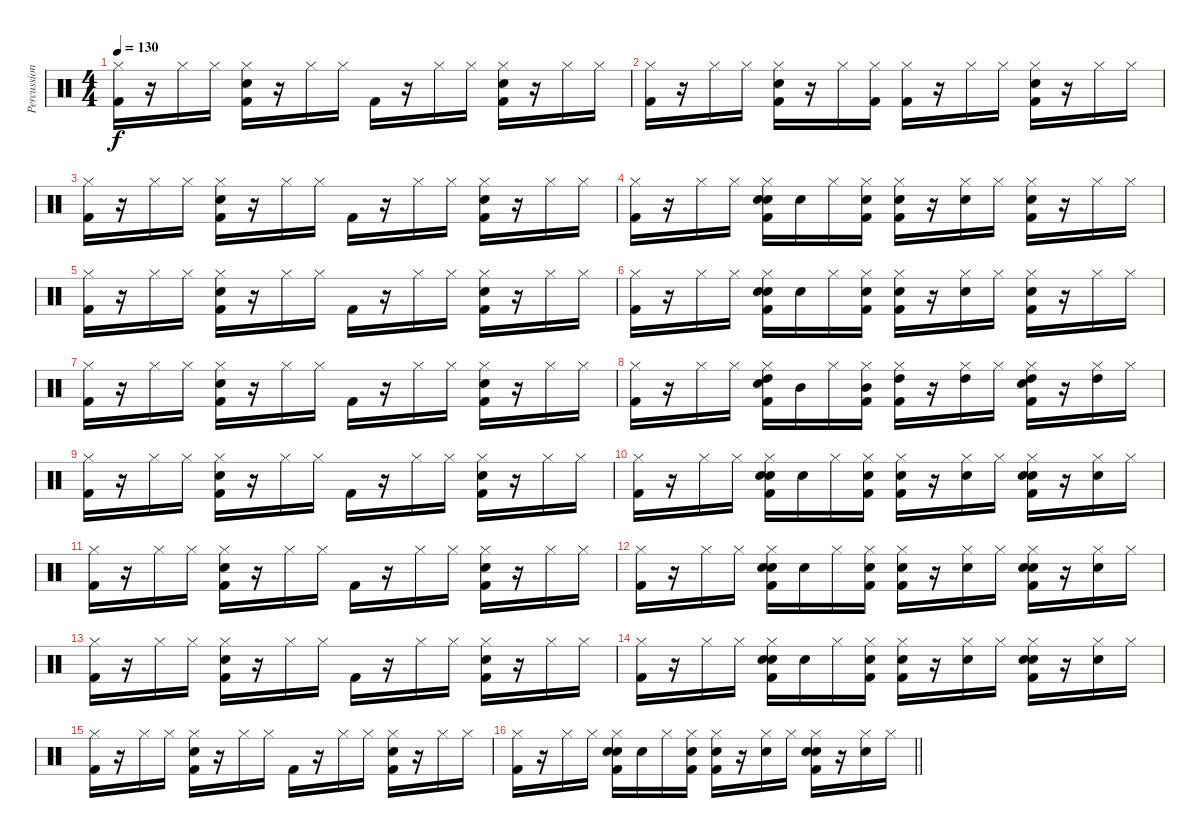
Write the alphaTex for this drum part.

\track ("Percussion" "Percussion") {instrument percussion}
\staff {score}
\articulation defaults
\ts (4 4)
\tempo 130
\clef neutral
\ks c
("Hi-Hat (closed)" "Kick (hit) 2").16{dy f} r.16 "Hi-Hat (closed)".16 "Hi-Hat (closed)".16 ("Hi-Hat (closed)" "Electric Snare (hit)" "Kick (hit) 2").16 r.16 "Hi-Hat (closed)".16 "Hi-Hat (closed)".16 "Kick (hit) 2".16 r.16 "Hi-Hat (closed)".16 "Hi-Hat (closed)".16 ("Hi-Hat (closed)" "Electric Snare (hit)" "Kick (hit) 2").16 r.16 "Hi-Hat (closed)".16 "Hi-Hat (closed)".16 |
("Hi-Hat (closed)" "Kick (hit) 2").16 r.16 "Hi-Hat (closed)".16 "Hi-Hat (closed)".16 ("Hi-Hat (closed)" "Electric Snare (hit)" "Kick (hit) 2").16 r.16 "Hi-Hat (closed)".16 ("Hi-Hat (closed)" "Kick (hit) 2").16 ("Hi-Hat (closed)" "Kick (hit) 2").16 r.16 "Hi-Hat (closed)".16 "Hi-Hat (closed)".16 ("Hi-Hat (closed)" "Electric Snare (hit)" "Kick (hit) 2").16 r.16 "Hi-Hat (closed)".16 "Hi-Hat (closed)".16 |
("Hi-Hat (closed)" "Kick (hit) 2").16 r.16 "Hi-Hat (closed)".16 "Hi-Hat (closed)".16 ("Hi-Hat (closed)" "Electric Snare (hit)" "Kick (hit) 2").16 r.16 "Hi-Hat (closed)".16 "Hi-Hat (closed)".16 "Kick (hit) 2".16 r.16 "Hi-Hat (closed)".16 "Hi-Hat (closed)".16 ("Hi-Hat (closed)" "Electric Snare (hit)" "Kick (hit) 2").16 r.16 "Hi-Hat (closed)".16 "Hi-Hat (closed)".16 |
("Hi-Hat (closed)" "Kick (hit) 2").16 r.16 "Hi-Hat (closed)".16 "Hi-Hat (closed)".16 ("Hi-Hat (closed)" "Hand Clap (hit)" "Electric Snare (hit)" "Kick (hit) 2").16 "Hand Clap (hit)".16 "Hi-Hat (closed)".16 ("Hi-Hat (closed)" "Hand Clap (hit)" "Kick (hit) 2").16 ("Hi-Hat (closed)" "Hand Clap (hit)" "Kick (hit) 2").16 r.16 ("Hi-Hat (closed)" "Hand Clap (hit)").16 "Hi-Hat (closed)".16 ("Hi-Hat (closed)" "Electric Snare (hit)" "Kick (hit) 2").16 r.16 "Hi-Hat (closed)".16 "Hi-Hat (closed)".16 |
("Hi-Hat (closed)" "Kick (hit) 2").16 r.16 "Hi-Hat (closed)".16 "Hi-Hat (closed)".16 ("Hi-Hat (closed)" "Electric Snare (hit)" "Kick (hit) 2").16 r.16 "Hi-Hat (closed)".16 "Hi-Hat (closed)".16 "Kick (hit) 2".16 r.16 "Hi-Hat (closed)".16 "Hi-Hat (closed)".16 ("Hi-Hat (closed)" "Electric Snare (hit)" "Kick (hit) 2").16 r.16 "Hi-Hat (closed)".16 "Hi-Hat (closed)".16 |
("Hi-Hat (closed)" "Kick (hit) 2").16 r.16 "Hi-Hat (closed)".16 "Hi-Hat (closed)".16 ("Hi-Hat (closed)" "Hand Clap (hit)" "Electric Snare (hit)" "Kick (hit) 2").16 "Hand Clap (hit)".16 "Hi-Hat (closed)".16 ("Hi-Hat (closed)" "Hand Clap (hit)" "Kick (hit) 2").16 ("Hi-Hat (closed)" "Hand Clap (hit)" "Kick (hit) 2").16 r.16 ("Hi-Hat (closed)" "Hand Clap (hit)").16 "Hi-Hat (closed)".16 ("Hi-Hat (closed)" "Electric Snare (hit)" "Kick (hit) 2").16 r.16 "Hi-Hat (closed)".16 "Hi-Hat (closed)".16 |
("Hi-Hat (closed)" "Kick (hit) 2").16 r.16 "Hi-Hat (closed)".16 "Hi-Hat (closed)".16 ("Hi-Hat (closed)" "Electric Snare (hit)" "Kick (hit) 2").16 r.16 "Hi-Hat (closed)".16 "Hi-Hat (closed)".16 "Kick (hit) 2".16 r.16 "Hi-Hat (closed)".16 "Hi-Hat (closed)".16 ("Hi-Hat (closed)" "Electric Snare (hit)" "Kick (hit) 2").16 r.16 "Hi-Hat (closed)".16 "Hi-Hat (closed)".16 |
("Hi-Hat (closed)" "Kick (hit) 2").16 r.16 "Hi-Hat (closed)".16 "Hi-Hat (closed)".16 ("Hi-Hat (closed)" "High Tom (hit)" "Electric Snare (hit)" "Kick (hit) 2").16 "Mid Tom (hit)".16 "Hi-Hat (closed)".16 ("Hi-Hat (closed)" "Mid Tom (hit)" "Kick (hit) 2").16 ("Hi-Hat (closed)" "High Tom (hit)" "Kick (hit) 2").16 r.16 ("Hi-Hat (closed)" "High Tom (hit)").16 "Hi-Hat (closed)".16 ("Hi-Hat (closed)" "High Tom (hit)" "Electric Snare (hit)" "Kick (hit) 2").16 r.16 ("Hi-Hat (closed)" "High Tom (hit)").16 "Hi-Hat (closed)".16 |
("Hi-Hat (closed)" "Kick (hit) 2").16 r.16 "Hi-Hat (closed)".16 "Hi-Hat (closed)".16 ("Hi-Hat (closed)" "Electric Snare (hit)" "Kick (hit) 2").16 r.16 "Hi-Hat (closed)".16 "Hi-Hat (closed)".16 "Kick (hit) 2".16 r.16 "Hi-Hat (closed)".16 "Hi-Hat (closed)".16 ("Hi-Hat (closed)" "Electric Snare (hit)" "Kick (hit) 2").16 r.16 "Hi-Hat (closed)".16 "Hi-Hat (closed)".16 |
("Hi-Hat (closed)" "Kick (hit) 2").16 r.16 "Hi-Hat (closed)".16 "Hi-Hat (closed)".16 ("Hi-Hat (closed)" "Hand Clap (hit)" "Electric Snare (hit)" "Kick (hit) 2").16 "Hand Clap (hit)".16 "Hi-Hat (closed)".16 ("Hi-Hat (closed)" "Hand Clap (hit)" "Kick (hit) 2").16 ("Hi-Hat (closed)" "Hand Clap (hit)" "Kick (hit) 2").16 r.16 ("Hi-Hat (closed)" "Hand Clap (hit)").16 "Hi-Hat (closed)".16 ("Hi-Hat (closed)" "Hand Clap (hit)" "Electric Snare (hit)" "Kick (hit) 2").16 r.16 ("Hi-Hat (closed)" "Hand Clap (hit)").16 "Hi-Hat (closed)".16 |
("Hi-Hat (closed)" "Kick (hit) 2").16 r.16 "Hi-Hat (closed)".16 "Hi-Hat (closed)".16 ("Hi-Hat (closed)" "Electric Snare (hit)" "Kick (hit) 2").16 r.16 "Hi-Hat (closed)".16 "Hi-Hat (closed)".16 "Kick (hit) 2".16 r.16 "Hi-Hat (closed)".16 "Hi-Hat (closed)".16 ("Hi-Hat (closed)" "Electric Snare (hit)" "Kick (hit) 2").16 r.16 "Hi-Hat (closed)".16 "Hi-Hat (closed)".16 |
("Hi-Hat (closed)" "Kick (hit) 2").16 r.16 "Hi-Hat (closed)".16 "Hi-Hat (closed)".16 ("Hi-Hat (closed)" "Hand Clap (hit)" "Electric Snare (hit)" "Kick (hit) 2").16 "Hand Clap (hit)".16 "Hi-Hat (closed)".16 ("Hi-Hat (closed)" "Hand Clap (hit)" "Kick (hit) 2").16 ("Hi-Hat (closed)" "Hand Clap (hit)" "Kick (hit) 2").16 r.16 ("Hi-Hat (closed)" "Hand Clap (hit)").16 "Hi-Hat (closed)".16 ("Hi-Hat (closed)" "Hand Clap (hit)" "Electric Snare (hit)" "Kick (hit) 2").16 r.16 ("Hi-Hat (closed)" "Hand Clap (hit)").16 "Hi-Hat (closed)".16 |
("Hi-Hat (closed)" "Kick (hit) 2").16 r.16 "Hi-Hat (closed)".16 "Hi-Hat (closed)".16 ("Hi-Hat (closed)" "Electric Snare (hit)" "Kick (hit) 2").16 r.16 "Hi-Hat (closed)".16 "Hi-Hat (closed)".16 "Kick (hit) 2".16 r.16 "Hi-Hat (closed)".16 "Hi-Hat (closed)".16 ("Hi-Hat (closed)" "Electric Snare (hit)" "Kick (hit) 2").16 r.16 "Hi-Hat (closed)".16 "Hi-Hat (closed)".16 |
("Hi-Hat (closed)" "Kick (hit) 2").16 r.16 "Hi-Hat (closed)".16 "Hi-Hat (closed)".16 ("Hi-Hat (closed)" "Hand Clap (hit)" "Electric Snare (hit)" "Kick (hit) 2").16 "Hand Clap (hit)".16 "Hi-Hat (closed)".16 ("Hi-Hat (closed)" "Hand Clap (hit)" "Kick (hit) 2").16 ("Hi-Hat (closed)" "Hand Clap (hit)" "Kick (hit) 2").16 r.16 ("Hi-Hat (closed)" "Hand Clap (hit)").16 "Hi-Hat (closed)".16 ("Hi-Hat (closed)" "Hand Clap (hit)" "Electric Snare (hit)" "Kick (hit) 2").16 r.16 ("Hi-Hat (closed)" "Hand Clap (hit)").16 "Hi-Hat (closed)".16 |
("Hi-Hat (closed)" "Kick (hit) 2").16 r.16 "Hi-Hat (closed)".16 "Hi-Hat (closed)".16 ("Hi-Hat (closed)" "Electric Snare (hit)" "Kick (hit) 2").16 r.16 "Hi-Hat (closed)".16 "Hi-Hat (closed)".16 "Kick (hit) 2".16 r.16 "Hi-Hat (closed)".16 "Hi-Hat (closed)".16 ("Hi-Hat (closed)" "Electric Snare (hit)" "Kick (hit) 2").16 r.16 "Hi-Hat (closed)".16 "Hi-Hat (closed)".16 |
\barLineRight lightlight
("Hi-Hat (closed)" "Kick (hit) 2").16 r.16 "Hi-Hat (closed)".16 "Hi-Hat (closed)".16 ("Hi-Hat (closed)" "Hand Clap (hit)" "Electric Snare (hit)" "Kick (hit) 2").16 "Hand Clap (hit)".16 "Hi-Hat (closed)".16 ("Hi-Hat (closed)" "Hand Clap (hit)" "Kick (hit) 2").16 ("Hi-Hat (closed)" "Hand Clap (hit)" "Kick (hit) 2").16 r.16 ("Hi-Hat (closed)" "Hand Clap (hit)").16 "Hi-Hat (closed)".16 ("Hi-Hat (closed)" "Hand Clap (hit)" "Electric Snare (hit)" "Kick (hit) 2").16 r.16 ("Hi-Hat (closed)" "Hand Clap (hit)").16 "Hi-Hat (closed)".16
